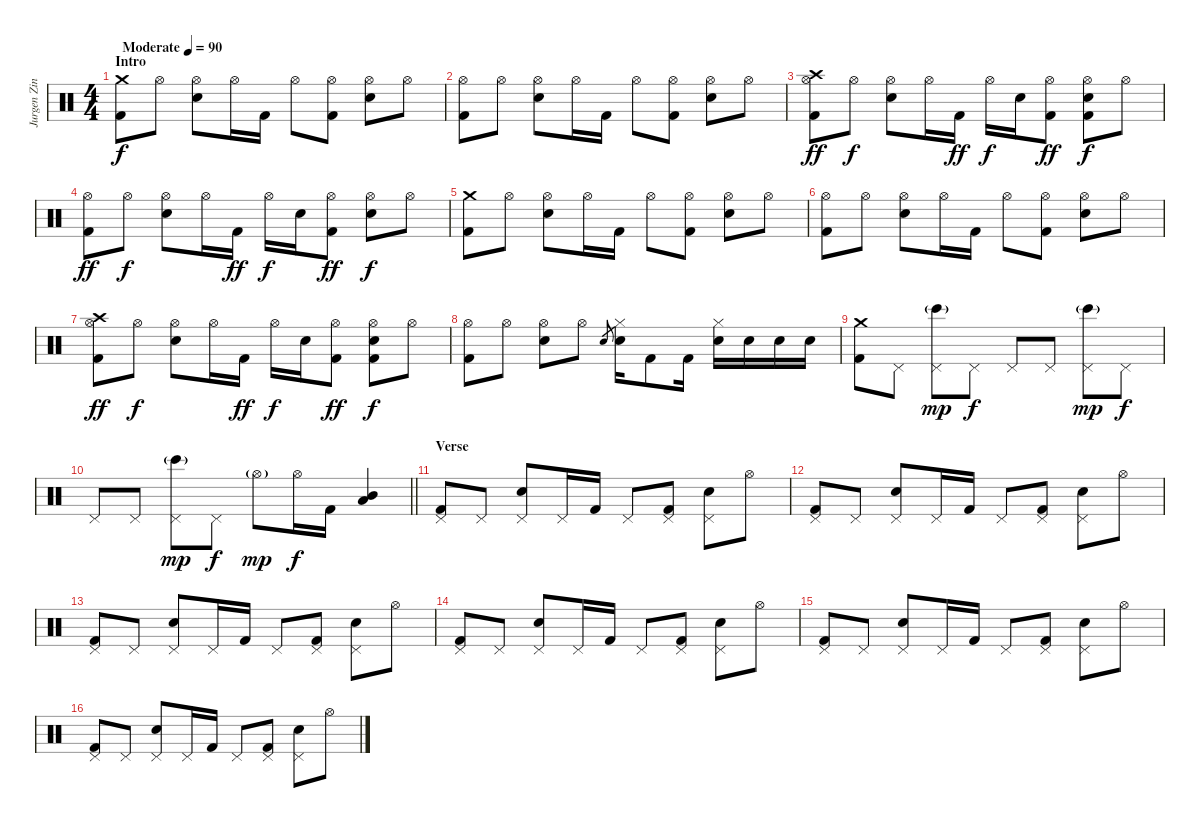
\track ("Jurgen Zing" "Jurgen Zin") {instrument percussion}
\staff {score}
\articulation defaults
\ts (4 4)
\section ("" "Intro")
\tempo (90 "Moderate")
\clef neutral
\ks c
("Crash medium (hit)" "Kick (hit) 2").8{dy f} "Hi-Hat (open)".8 ("Hi-Hat (open)" "Electric Snare (hit)").8 "Hi-Hat (open)".16 "Kick (hit) 2".16 "Hi-Hat (open)".8 ("Hi-Hat (open)" "Kick (hit) 2").8 ("Hi-Hat (open)" "Electric Snare (hit)").8 "Hi-Hat (open)".8 |
("Hi-Hat (open)" "Kick (hit) 2").8 "Hi-Hat (open)".8 ("Hi-Hat (open)" "Electric Snare (hit)").8 "Hi-Hat (open)".16 "Kick (hit) 2".16 "Hi-Hat (open)".8 ("Hi-Hat (open)" "Kick (hit) 2").8 ("Hi-Hat (open)" "Electric Snare (hit)").8 "Hi-Hat (open)".8 |
("Crash high (hit)" "Hi-Hat (open)" "Kick (hit) 2").8{dy ff} "Hi-Hat (open)".8{dy f} ("Hi-Hat (open)" "Electric Snare (hit)").8 "Hi-Hat (open)".16 "Kick (hit) 2".16{dy ff} "Hi-Hat (open)".16{dy f} "Electric Snare (hit)".16 ("Hi-Hat (open)" "Kick (hit) 2").8{dy ff} ("Hi-Hat (open)" "Electric Snare (hit)" "Kick (hit) 2").8{dy f} "Hi-Hat (open)".8 |
("Hi-Hat (open)" "Kick (hit) 2").8{dy ff} "Hi-Hat (open)".8{dy f} ("Hi-Hat (open)" "Electric Snare (hit)").8 "Hi-Hat (open)".16 "Kick (hit) 2".16{dy ff} "Hi-Hat (open)".16{dy f} "Electric Snare (hit)".16 ("Hi-Hat (open)" "Kick (hit) 2").8{dy ff} ("Hi-Hat (open)" "Electric Snare (hit)").8{dy f} "Hi-Hat (open)".8 |
("Crash medium (hit)" "Kick (hit) 2").8 "Hi-Hat (open)".8 ("Hi-Hat (open)" "Electric Snare (hit)").8 "Hi-Hat (open)".16 "Kick (hit) 2".16 "Hi-Hat (open)".8 ("Hi-Hat (open)" "Kick (hit) 2").8 ("Hi-Hat (open)" "Electric Snare (hit)").8 "Hi-Hat (open)".8 |
("Hi-Hat (open)" "Kick (hit) 2").8 "Hi-Hat (open)".8 ("Hi-Hat (open)" "Electric Snare (hit)").8 "Hi-Hat (open)".16 "Kick (hit) 2".16 "Hi-Hat (open)".8 ("Hi-Hat (open)" "Kick (hit) 2").8 ("Hi-Hat (open)" "Electric Snare (hit)").8 "Hi-Hat (open)".8 |
("Crash high (hit)" "Hi-Hat (open)" "Kick (hit) 2").8{dy ff} "Hi-Hat (open)".8{dy f} ("Hi-Hat (open)" "Electric Snare (hit)").8 "Hi-Hat (open)".16 "Kick (hit) 2".16{dy ff} "Hi-Hat (open)".16{dy f} "Electric Snare (hit)".16 ("Hi-Hat (open)" "Kick (hit) 2").8{dy ff} ("Hi-Hat (open)" "Electric Snare (hit)" "Kick (hit) 2").8{dy f} "Hi-Hat (open)".8 |
("Hi-Hat (open)" "Kick (hit) 2").8 "Hi-Hat (open)".8 ("Hi-Hat (open)" "Electric Snare (hit)").8 "Hi-Hat (open)".8 "Electric Snare (hit)".8{gr} ("Hi-Hat (closed)" "Electric Snare (hit)").16 "Kick (hit) 2".8 "Kick (hit) 2".16 ("Hi-Hat (closed)" "Electric Snare (hit)").16 "Electric Snare (hit)".16 "Electric Snare (hit)".16 "Electric Snare (hit)".16 |
("Crash medium (hit)" "Kick (hit) 2").8 "Pedal Hi-Hat (hit)".8 ("Pedal Hi-Hat (hit)" "Bongo High (hit)"{g}).8{dy mp} "Pedal Hi-Hat (hit)".8{dy f} "Pedal Hi-Hat (hit)".8 "Pedal Hi-Hat (hit)".8 ("Pedal Hi-Hat (hit)" "Bongo High (hit)"{g}).8{dy mp} "Pedal Hi-Hat (hit)".8{dy f} |
\barLineRight lightlight "Pedal Hi-Hat (hit)".8 "Pedal Hi-Hat (hit)".8
("Pedal Hi-Hat (hit)" "Bongo High (hit)"{g}).8{dy mp} "Pedal Hi-Hat (hit)".8{dy f} "Hi-Hat (open)"{g}.8{dy mp} "Hi-Hat (open)".16{dy f} "Kick (hit) 2".16 ("Low Tom (hit)" "Mid Tom (hit)").4 |
\section ("" "Verse")
("Pedal Hi-Hat (hit)" "Kick (hit) 2").8 "Pedal Hi-Hat (hit)".8 ("Pedal Hi-Hat (hit)" "Electric Snare (hit)").8 "Pedal Hi-Hat (hit)".16 "Kick (hit) 2".16 "Pedal Hi-Hat (hit)".8 ("Pedal Hi-Hat (hit)" "Kick (hit) 2").8 ("Pedal Hi-Hat (hit)" "Electric Snare (hit)").8 "Hi-Hat (open)".8 |
("Pedal Hi-Hat (hit)" "Kick (hit) 2").8 "Pedal Hi-Hat (hit)".8 ("Pedal Hi-Hat (hit)" "Electric Snare (hit)").8 "Pedal Hi-Hat (hit)".16 "Kick (hit) 2".16 "Pedal Hi-Hat (hit)".8 ("Pedal Hi-Hat (hit)" "Kick (hit) 2").8 ("Pedal Hi-Hat (hit)" "Electric Snare (hit)").8 "Hi-Hat (open)".8 |
("Pedal Hi-Hat (hit)" "Kick (hit) 2").8 "Pedal Hi-Hat (hit)".8 ("Pedal Hi-Hat (hit)" "Electric Snare (hit)").8 "Pedal Hi-Hat (hit)".16 "Kick (hit) 2".16 "Pedal Hi-Hat (hit)".8 ("Pedal Hi-Hat (hit)" "Kick (hit) 2").8 ("Pedal Hi-Hat (hit)" "Electric Snare (hit)").8 "Hi-Hat (open)".8 |
("Pedal Hi-Hat (hit)" "Kick (hit) 2").8 "Pedal Hi-Hat (hit)".8 ("Pedal Hi-Hat (hit)" "Electric Snare (hit)").8 "Pedal Hi-Hat (hit)".16 "Kick (hit) 2".16 "Pedal Hi-Hat (hit)".8 ("Pedal Hi-Hat (hit)" "Kick (hit) 2").8 ("Pedal Hi-Hat (hit)" "Electric Snare (hit)").8 "Hi-Hat (open)".8 |
("Pedal Hi-Hat (hit)" "Kick (hit) 2").8 "Pedal Hi-Hat (hit)".8 ("Pedal Hi-Hat (hit)" "Electric Snare (hit)").8 "Pedal Hi-Hat (hit)".16 "Kick (hit) 2".16 "Pedal Hi-Hat (hit)".8 ("Pedal Hi-Hat (hit)" "Kick (hit) 2").8 ("Pedal Hi-Hat (hit)" "Electric Snare (hit)").8 "Hi-Hat (open)".8 |
("Pedal Hi-Hat (hit)" "Kick (hit) 2").8 "Pedal Hi-Hat (hit)".8 ("Pedal Hi-Hat (hit)" "Electric Snare (hit)").8 "Pedal Hi-Hat (hit)".16 "Kick (hit) 2".16 "Pedal Hi-Hat (hit)".8 ("Pedal Hi-Hat (hit)" "Kick (hit) 2").8 ("Pedal Hi-Hat (hit)" "Electric Snare (hit)").8 "Hi-Hat (open)".8
